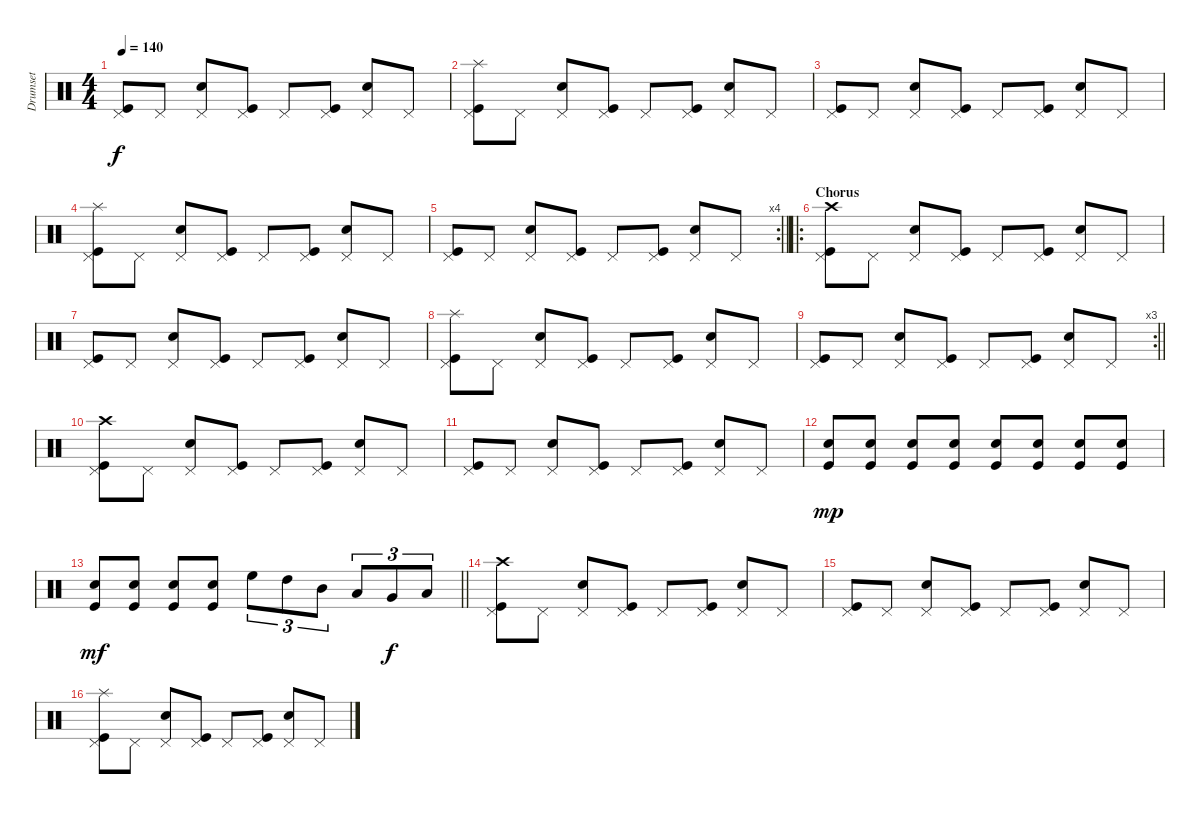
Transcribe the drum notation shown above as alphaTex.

\track ("Drumset" "Drumset") {instrument percussion}
\staff {score}
\articulation defaults
\ts (4 4)
\tempo 140
\clef neutral
\ks c
("Pedal Hi-Hat (hit)" "Kick (hit)").8{dy f} "Pedal Hi-Hat (hit)".8 ("Pedal Hi-Hat (hit)" "Snare (hit) 2").8 ("Pedal Hi-Hat (hit)" "Kick (hit)").8 "Pedal Hi-Hat (hit)".8 ("Pedal Hi-Hat (hit)" "Kick (hit)").8 ("Pedal Hi-Hat (hit)" "Snare (hit) 2").8 "Pedal Hi-Hat (hit)".8 |
("Pedal Hi-Hat (hit)" "Kick (hit)" "Splash (hit)").8 "Pedal Hi-Hat (hit)".8 ("Pedal Hi-Hat (hit)" "Snare (hit) 2").8 ("Pedal Hi-Hat (hit)" "Kick (hit)").8 "Pedal Hi-Hat (hit)".8 ("Pedal Hi-Hat (hit)" "Kick (hit)").8 ("Pedal Hi-Hat (hit)" "Snare (hit) 2").8 "Pedal Hi-Hat (hit)".8 |
("Pedal Hi-Hat (hit)" "Kick (hit)").8 "Pedal Hi-Hat (hit)".8 ("Pedal Hi-Hat (hit)" "Snare (hit) 2").8 ("Pedal Hi-Hat (hit)" "Kick (hit)").8 "Pedal Hi-Hat (hit)".8 ("Pedal Hi-Hat (hit)" "Kick (hit)").8 ("Pedal Hi-Hat (hit)" "Snare (hit) 2").8 "Pedal Hi-Hat (hit)".8 |
("Pedal Hi-Hat (hit)" "Kick (hit)" "Splash (hit)").8 "Pedal Hi-Hat (hit)".8 ("Pedal Hi-Hat (hit)" "Snare (hit) 2").8 ("Pedal Hi-Hat (hit)" "Kick (hit)").8 "Pedal Hi-Hat (hit)".8 ("Pedal Hi-Hat (hit)" "Kick (hit)").8 ("Pedal Hi-Hat (hit)" "Snare (hit) 2").8 "Pedal Hi-Hat (hit)".8 |
\rc 4
\barLineRight lightlight
("Pedal Hi-Hat (hit)" "Kick (hit)").8 "Pedal Hi-Hat (hit)".8 ("Pedal Hi-Hat (hit)" "Snare (hit) 2").8 ("Pedal Hi-Hat (hit)" "Kick (hit)").8 "Pedal Hi-Hat (hit)".8 ("Pedal Hi-Hat (hit)" "Kick (hit)").8 ("Pedal Hi-Hat (hit)" "Snare (hit) 2").8 "Pedal Hi-Hat (hit)".8 |
\ro
\section ("" "Chorus")
("Pedal Hi-Hat (hit)" "Kick (hit)" "Crash high (hit)").8 "Pedal Hi-Hat (hit)".8 ("Pedal Hi-Hat (hit)" "Snare (hit) 2").8 ("Pedal Hi-Hat (hit)" "Kick (hit)").8 "Pedal Hi-Hat (hit)".8 ("Pedal Hi-Hat (hit)" "Kick (hit)").8 ("Pedal Hi-Hat (hit)" "Snare (hit) 2").8 "Pedal Hi-Hat (hit)".8 |
("Pedal Hi-Hat (hit)" "Kick (hit)").8 "Pedal Hi-Hat (hit)".8 ("Pedal Hi-Hat (hit)" "Snare (hit) 2").8 ("Pedal Hi-Hat (hit)" "Kick (hit)").8 "Pedal Hi-Hat (hit)".8 ("Pedal Hi-Hat (hit)" "Kick (hit)").8 ("Pedal Hi-Hat (hit)" "Snare (hit) 2").8 "Pedal Hi-Hat (hit)".8 |
("Pedal Hi-Hat (hit)" "Kick (hit)" "Splash (hit)").8 "Pedal Hi-Hat (hit)".8 ("Pedal Hi-Hat (hit)" "Snare (hit) 2").8 ("Pedal Hi-Hat (hit)" "Kick (hit)").8 "Pedal Hi-Hat (hit)".8 ("Pedal Hi-Hat (hit)" "Kick (hit)").8 ("Pedal Hi-Hat (hit)" "Snare (hit) 2").8 "Pedal Hi-Hat (hit)".8 |
\rc 3
\barLineRight lightlight
("Pedal Hi-Hat (hit)" "Kick (hit)").8 "Pedal Hi-Hat (hit)".8 ("Pedal Hi-Hat (hit)" "Snare (hit) 2").8 ("Pedal Hi-Hat (hit)" "Kick (hit)").8 "Pedal Hi-Hat (hit)".8 ("Pedal Hi-Hat (hit)" "Kick (hit)").8 ("Pedal Hi-Hat (hit)" "Snare (hit) 2").8 "Pedal Hi-Hat (hit)".8 |
("Pedal Hi-Hat (hit)" "Kick (hit)" "Crash high (hit)").8 "Pedal Hi-Hat (hit)".8 ("Pedal Hi-Hat (hit)" "Snare (hit) 2").8 ("Pedal Hi-Hat (hit)" "Kick (hit)").8 "Pedal Hi-Hat (hit)".8 ("Pedal Hi-Hat (hit)" "Kick (hit)").8 ("Pedal Hi-Hat (hit)" "Snare (hit) 2").8 "Pedal Hi-Hat (hit)".8 |
("Pedal Hi-Hat (hit)" "Kick (hit)").8 "Pedal Hi-Hat (hit)".8 ("Pedal Hi-Hat (hit)" "Snare (hit) 2").8 ("Pedal Hi-Hat (hit)" "Kick (hit)").8 "Pedal Hi-Hat (hit)".8 ("Pedal Hi-Hat (hit)" "Kick (hit)").8 ("Pedal Hi-Hat (hit)" "Snare (hit) 2").8 "Pedal Hi-Hat (hit)".8 |
("Snare (hit) 2" "Kick (hit)").8{dy mp} ("Snare (hit) 2" "Kick (hit)").8 ("Snare (hit) 2" "Kick (hit)").8 ("Snare (hit) 2" "Kick (hit)").8 ("Snare (hit) 2" "Kick (hit)").8 ("Snare (hit) 2" "Kick (hit)").8 ("Snare (hit) 2" "Kick (hit)").8 ("Snare (hit) 2" "Kick (hit)").8 |
\barLineRight lightlight
("Snare (hit) 2" "Kick (hit)").8{dy mf} ("Snare (hit) 2" "Kick (hit)").8 ("Snare (hit) 2" "Kick (hit)").8 ("Snare (hit) 2" "Kick (hit)").8 "High Floor Tom (hit)".8{tu (3 2)} "High Tom (hit)".8{tu (3 2)} "Mid Tom (hit)".8{tu (3 2)} "Low Tom (hit)".8{tu (3 2)} "Very Low Tom (hit)".8{tu (3 2) dy f} "Low Floor Tom (hit)".8{tu (3 2)} |
("Pedal Hi-Hat (hit)" "Kick (hit)" "Crash high (hit)").8 "Pedal Hi-Hat (hit)".8 ("Pedal Hi-Hat (hit)" "Snare (hit) 2").8 ("Pedal Hi-Hat (hit)" "Kick (hit)").8 "Pedal Hi-Hat (hit)".8 ("Pedal Hi-Hat (hit)" "Kick (hit)").8 ("Pedal Hi-Hat (hit)" "Snare (hit) 2").8 "Pedal Hi-Hat (hit)".8 |
("Pedal Hi-Hat (hit)" "Kick (hit)").8 "Pedal Hi-Hat (hit)".8 ("Pedal Hi-Hat (hit)" "Snare (hit) 2").8 ("Pedal Hi-Hat (hit)" "Kick (hit)").8 "Pedal Hi-Hat (hit)".8 ("Pedal Hi-Hat (hit)" "Kick (hit)").8 ("Pedal Hi-Hat (hit)" "Snare (hit) 2").8 "Pedal Hi-Hat (hit)".8 |
("Pedal Hi-Hat (hit)" "Kick (hit)" "Splash (hit)").8 "Pedal Hi-Hat (hit)".8 ("Pedal Hi-Hat (hit)" "Snare (hit) 2").8 ("Pedal Hi-Hat (hit)" "Kick (hit)").8 "Pedal Hi-Hat (hit)".8 ("Pedal Hi-Hat (hit)" "Kick (hit)").8 ("Pedal Hi-Hat (hit)" "Snare (hit) 2").8 "Pedal Hi-Hat (hit)".8
